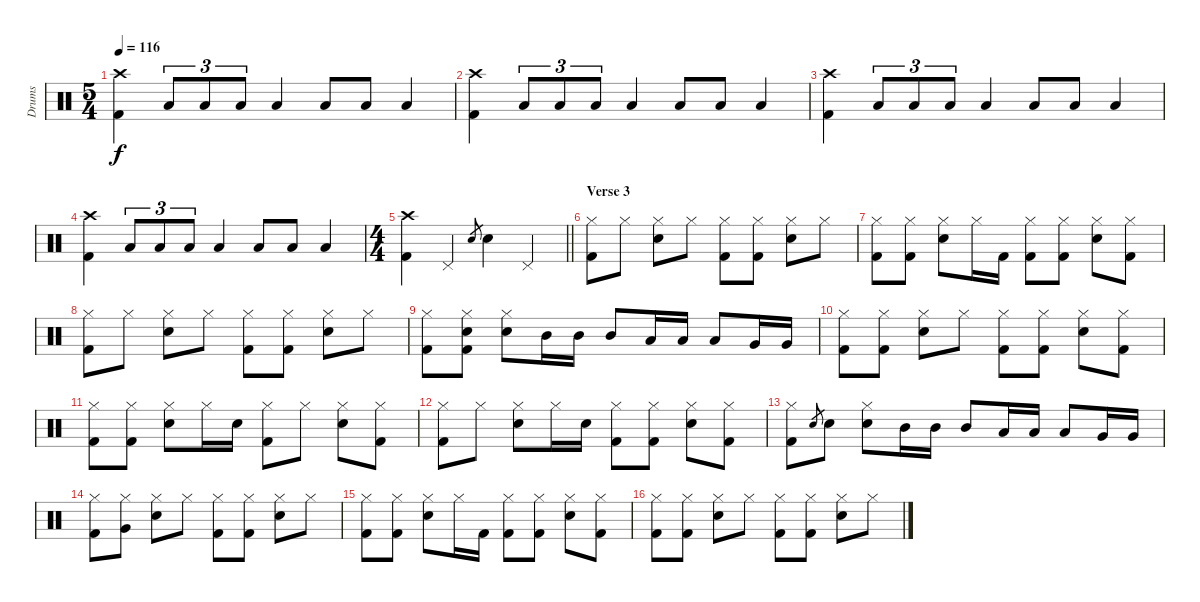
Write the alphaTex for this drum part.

\track ("Drums" "Drums") {instrument percussion}
\staff {score}
\articulation defaults
\ts (5 4)
\tempo 116
\clef neutral
\ks c
("Crash high (hit)" "Kick (hit) 2").4{dy f} "Low Tom (hit)".8{tu (3 2)} "Low Tom (hit)".8{tu (3 2)} "Low Tom (hit)".8{tu (3 2)} "Low Tom (hit)".4 "Low Tom (hit)".8 "Low Tom (hit)".8 "Low Tom (hit)".4 |
("Crash high (hit)" "Kick (hit) 2").4 "Low Tom (hit)".8{tu (3 2)} "Low Tom (hit)".8{tu (3 2)} "Low Tom (hit)".8{tu (3 2)} "Low Tom (hit)".4 "Low Tom (hit)".8 "Low Tom (hit)".8 "Low Tom (hit)".4 |
("Crash high (hit)" "Kick (hit) 2").4 "Low Tom (hit)".8{tu (3 2)} "Low Tom (hit)".8{tu (3 2)} "Low Tom (hit)".8{tu (3 2)} "Low Tom (hit)".4 "Low Tom (hit)".8 "Low Tom (hit)".8 "Low Tom (hit)".4 |
("Crash high (hit)" "Kick (hit) 2").4 "Low Tom (hit)".8{tu (3 2)} "Low Tom (hit)".8{tu (3 2)} "Low Tom (hit)".8{tu (3 2)} "Low Tom (hit)".4 "Low Tom (hit)".8 "Low Tom (hit)".8 "Low Tom (hit)".4 |
\ts (4 4)
\barLineRight lightlight
("Crash high (hit)" "Kick (hit) 2").4 "Pedal Hi-Hat (hit)".4 "Snare (hit) 2".8{gr} "Snare (hit) 2".4 "Pedal Hi-Hat (hit)".4 |
\section ("" "Verse 3")
("Hi-Hat (closed)" "Kick (hit) 2").8 "Hi-Hat (closed)".8 ("Hi-Hat (closed)" "Snare (hit) 2").8 "Hi-Hat (closed)".8 ("Hi-Hat (closed)" "Kick (hit) 2").8 ("Hi-Hat (closed)" "Kick (hit) 2").8 ("Hi-Hat (closed)" "Snare (hit) 2").8 "Hi-Hat (closed)".8 |
("Hi-Hat (closed)" "Kick (hit) 2").8 ("Hi-Hat (closed)" "Kick (hit) 2").8 ("Hi-Hat (closed)" "Snare (hit) 2").8 "Hi-Hat (closed)".16 "Kick (hit) 2".16 ("Hi-Hat (closed)" "Kick (hit) 2").8 ("Hi-Hat (closed)" "Kick (hit) 2").8 ("Hi-Hat (closed)" "Snare (hit) 2").8 ("Hi-Hat (closed)" "Kick (hit) 2").8 |
("Hi-Hat (closed)" "Kick (hit) 2").8 "Hi-Hat (closed)".8 ("Hi-Hat (closed)" "Snare (hit) 2").8 "Hi-Hat (closed)".8 ("Hi-Hat (closed)" "Kick (hit) 2").8 ("Hi-Hat (closed)" "Kick (hit) 2").8 ("Hi-Hat (closed)" "Snare (hit) 2").8 "Hi-Hat (closed)".8 |
("Hi-Hat (closed)" "Kick (hit) 2").8 ("Hi-Hat (closed)" "Snare (hit) 2" "Kick (hit) 2").8 ("Hi-Hat (closed)" "Snare (hit) 2").8 "Mid Tom (hit)".16 "Mid Tom (hit)".16 "Mid Tom (hit)".8 "Low Tom (hit)".16 "Low Tom (hit)".16 "Low Tom (hit)".8 "Very Low Tom (hit)".16 "Very Low Tom (hit)".16 |
("Hi-Hat (closed)" "Kick (hit) 2").8 ("Hi-Hat (closed)" "Kick (hit) 2").8 ("Hi-Hat (closed)" "Snare (hit) 2").8 "Hi-Hat (closed)".8 ("Hi-Hat (closed)" "Kick (hit) 2").8 ("Hi-Hat (closed)" "Kick (hit) 2").8 ("Hi-Hat (closed)" "Snare (hit) 2").8 ("Hi-Hat (closed)" "Kick (hit) 2").8 |
("Hi-Hat (closed)" "Kick (hit) 2").8 ("Hi-Hat (closed)" "Kick (hit) 2").8 ("Hi-Hat (closed)" "Snare (hit) 2").8 "Hi-Hat (closed)".16 "Snare (hit) 2".16 ("Hi-Hat (closed)" "Kick (hit) 2").8 "Hi-Hat (closed)".8 ("Hi-Hat (closed)" "Snare (hit) 2").8 ("Hi-Hat (closed)" "Kick (hit) 2").8 |
("Hi-Hat (closed)" "Kick (hit) 2").8 "Hi-Hat (closed)".8 ("Hi-Hat (closed)" "Snare (hit) 2").8 "Hi-Hat (closed)".16 "Snare (hit) 2".16 ("Hi-Hat (closed)" "Kick (hit) 2").8 ("Hi-Hat (closed)" "Kick (hit) 2").8 ("Hi-Hat (closed)" "Snare (hit) 2").8 ("Hi-Hat (closed)" "Kick (hit) 2").8 |
("Hi-Hat (closed)" "Kick (hit) 2").8 "Snare (hit) 2".8{gr} "Snare (hit) 2".8 ("Hi-Hat (closed)" "Snare (hit) 2").8 "Mid Tom (hit)".16 "Mid Tom (hit)".16 "Mid Tom (hit)".8 "Low Tom (hit)".16 "Low Tom (hit)".16 "Low Tom (hit)".8 "Very Low Tom (hit)".16 "Very Low Tom (hit)".16 |
("Hi-Hat (closed)" "Kick (hit) 2").8 ("Hi-Hat (closed)" "Very Low Tom (hit)").8 ("Hi-Hat (closed)" "Snare (hit) 2").8 "Hi-Hat (closed)".8 ("Hi-Hat (closed)" "Kick (hit) 2").8 ("Hi-Hat (closed)" "Kick (hit) 2").8 ("Hi-Hat (closed)" "Snare (hit) 2").8 "Hi-Hat (closed)".8 |
("Hi-Hat (closed)" "Kick (hit) 2").8 ("Hi-Hat (closed)" "Kick (hit) 2").8 ("Hi-Hat (closed)" "Snare (hit) 2").8 "Hi-Hat (closed)".16 "Kick (hit) 2".16 ("Hi-Hat (closed)" "Kick (hit) 2").8 ("Hi-Hat (closed)" "Kick (hit) 2").8 ("Hi-Hat (closed)" "Snare (hit) 2").8 ("Hi-Hat (closed)" "Kick (hit) 2").8 |
("Hi-Hat (closed)" "Kick (hit) 2").8 ("Hi-Hat (closed)" "Kick (hit) 2").8 ("Hi-Hat (closed)" "Snare (hit) 2").8 "Hi-Hat (closed)".8 ("Hi-Hat (closed)" "Kick (hit) 2").8 ("Hi-Hat (closed)" "Kick (hit) 2").8 ("Hi-Hat (closed)" "Snare (hit) 2").8 "Hi-Hat (closed)".8
